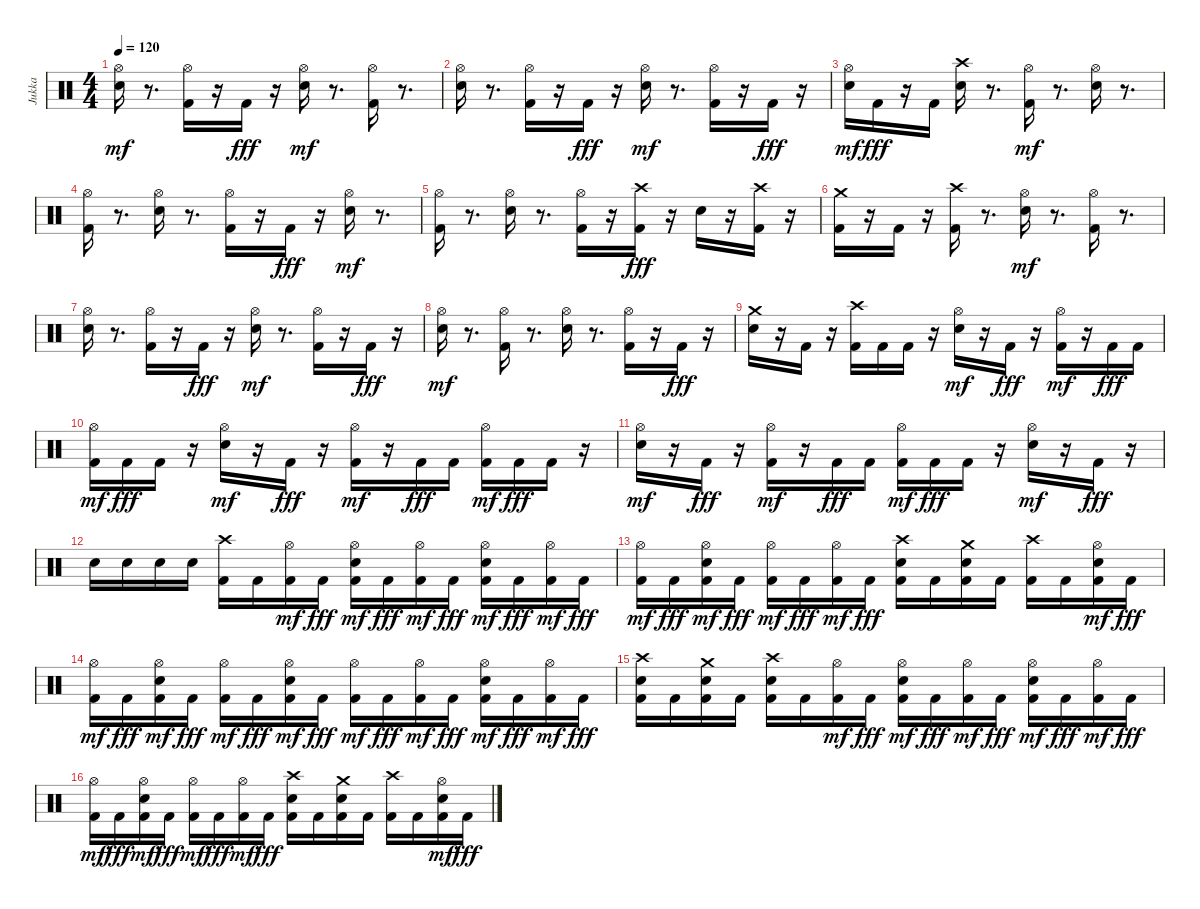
\track ("Jukka" "Jukka") {instrument percussion}
\staff {score}
\articulation defaults
\ts (4 4)
\tempo 120
\clef neutral
\ks c
("Electric Snare (hit)" "Hi-Hat (open)").16{dy mf} r.8{d} ("Kick (hit) 2" "Hi-Hat (open)").16 r.16 "Kick (hit) 2".16{dy fff} r.16 ("Electric Snare (hit)" "Hi-Hat (open)").16{dy mf} r.8{d} ("Kick (hit) 2" "Hi-Hat (open)").16 r.8{d} |
("Electric Snare (hit)" "Hi-Hat (open)").16 r.8{d} ("Kick (hit) 2" "Hi-Hat (open)").16 r.16 "Kick (hit) 2".16{dy fff} r.16 ("Electric Snare (hit)" "Hi-Hat (open)").16{dy mf} r.8{d} ("Kick (hit) 2" "Hi-Hat (open)").16 r.16 "Kick (hit) 2".16{dy fff} r.16 |
("Electric Snare (hit)" "Hi-Hat (open)").16{dy mf} "Kick (hit) 2".16{dy fff} r.16 "Kick (hit) 2".16 ("Electric Snare (hit)" "Crash high (hit)").16 r.8{d} ("Kick (hit) 2" "Hi-Hat (open)").16{dy mf} r.8{d} ("Electric Snare (hit)" "Hi-Hat (open)").16 r.8{d} |
("Kick (hit) 2" "Hi-Hat (open)").16 r.8{d} ("Electric Snare (hit)" "Hi-Hat (open)").16 r.8{d} ("Kick (hit) 2" "Hi-Hat (open)").16 r.16 "Kick (hit) 2".16{dy fff} r.16 ("Electric Snare (hit)" "Hi-Hat (open)").16{dy mf} r.8{d} |
("Kick (hit) 2" "Hi-Hat (open)").16 r.8{d} ("Electric Snare (hit)" "Hi-Hat (open)").16 r.8{d} ("Kick (hit) 2" "Hi-Hat (open)").16 r.16 ("Kick (hit) 2" "Crash high (hit)").16{dy fff} r.16 "Electric Snare (hit)".16 r.16 ("Kick (hit) 2" "Crash high (hit)").16 r.16 |
("Kick (hit) 2" "Crash medium (hit)").16 r.16 "Kick (hit) 2".16 r.16 ("Kick (hit) 2" "Crash high (hit)").16 r.8{d} ("Electric Snare (hit)" "Hi-Hat (open)").16{dy mf} r.8{d} ("Kick (hit) 2" "Hi-Hat (open)").16 r.8{d} |
("Electric Snare (hit)" "Hi-Hat (open)").16 r.8{d} ("Kick (hit) 2" "Hi-Hat (open)").16 r.16 "Kick (hit) 2".16{dy fff} r.16 ("Electric Snare (hit)" "Hi-Hat (open)").16{dy mf} r.8{d} ("Kick (hit) 2" "Hi-Hat (open)").16 r.16 "Kick (hit) 2".16{dy fff} r.16 |
("Electric Snare (hit)" "Hi-Hat (open)").16{dy mf} r.8{d} ("Kick (hit) 2" "Hi-Hat (open)").16 r.8{d} ("Electric Snare (hit)" "Hi-Hat (open)").16 r.8{d} ("Kick (hit) 2" "Hi-Hat (open)").16 r.16 "Kick (hit) 2".16{dy fff} r.16 |
("Electric Snare (hit)" "Crash medium (hit)").16 r.16 "Kick (hit) 2".16 r.16 ("Kick (hit) 2" "Crash high (hit)").16 "Kick (hit) 2".16 "Kick (hit) 2".16 r.16 ("Electric Snare (hit)" "Hi-Hat (open)").16{dy mf} r.16 "Kick (hit) 2".16{dy fff} r.16 ("Kick (hit) 2" "Hi-Hat (open)").16{dy mf} r.16 "Kick (hit) 2".16{dy fff} "Kick (hit) 2".16 |
("Kick (hit) 2" "Hi-Hat (open)").16{dy mf} "Kick (hit) 2".16{dy fff} "Kick (hit) 2".16 r.16 ("Electric Snare (hit)" "Hi-Hat (open)").16{dy mf} r.16 "Kick (hit) 2".16{dy fff} r.16 ("Kick (hit) 2" "Hi-Hat (open)").16{dy mf} r.16 "Kick (hit) 2".16{dy fff} "Kick (hit) 2".16 ("Kick (hit) 2" "Hi-Hat (open)").16{dy mf} "Kick (hit) 2".16{dy fff} "Kick (hit) 2".16 r.16 |
("Electric Snare (hit)" "Hi-Hat (open)").16{dy mf} r.16 "Kick (hit) 2".16{dy fff} r.16 ("Kick (hit) 2" "Hi-Hat (open)").16{dy mf} r.16 "Kick (hit) 2".16{dy fff} "Kick (hit) 2".16 ("Kick (hit) 2" "Hi-Hat (open)").16{dy mf} "Kick (hit) 2".16{dy fff} "Kick (hit) 2".16 r.16 ("Electric Snare (hit)" "Hi-Hat (open)").16{dy mf} r.16 "Kick (hit) 2".16{dy fff} r.16 |
"Electric Snare (hit)".16 "Electric Snare (hit)".16 "Electric Snare (hit)".16 "Electric Snare (hit)".16 ("Kick (hit) 2" "Crash high (hit)").16 "Kick (hit) 2".16 ("Kick (hit) 2" "Hi-Hat (open)").16{dy mf} "Kick (hit) 2".16{dy fff} ("Kick (hit) 2" "Electric Snare (hit)" "Hi-Hat (open)").16{dy mf} "Kick (hit) 2".16{dy fff} ("Kick (hit) 2" "Hi-Hat (open)").16{dy mf} "Kick (hit) 2".16{dy fff} ("Kick (hit) 2" "Electric Snare (hit)" "Hi-Hat (open)").16{dy mf} "Kick (hit) 2".16{dy fff} ("Kick (hit) 2" "Hi-Hat (open)").16{dy mf} "Kick (hit) 2".16{dy fff} |
("Kick (hit) 2" "Hi-Hat (open)").16{dy mf} "Kick (hit) 2".16{dy fff} ("Kick (hit) 2" "Electric Snare (hit)" "Hi-Hat (open)").16{dy mf} "Kick (hit) 2".16{dy fff} ("Kick (hit) 2" "Hi-Hat (open)").16{dy mf} "Kick (hit) 2".16{dy fff} ("Kick (hit) 2" "Hi-Hat (open)").16{dy mf} "Kick (hit) 2".16{dy fff} ("Kick (hit) 2" "Electric Snare (hit)" "Crash high (hit)").16 "Kick (hit) 2".16 ("Kick (hit) 2" "Electric Snare (hit)" "Crash medium (hit)").16 "Kick (hit) 2".16 ("Kick (hit) 2" "Crash high (hit)").16 "Kick (hit) 2".16 ("Kick (hit) 2" "Electric Snare (hit)" "Hi-Hat (open)").16{dy mf} "Kick (hit) 2".16{dy fff} |
("Kick (hit) 2" "Hi-Hat (open)").16{dy mf} "Kick (hit) 2".16{dy fff} ("Kick (hit) 2" "Electric Snare (hit)" "Hi-Hat (open)").16{dy mf} "Kick (hit) 2".16{dy fff} ("Kick (hit) 2" "Hi-Hat (open)").16{dy mf} "Kick (hit) 2".16{dy fff} ("Kick (hit) 2" "Electric Snare (hit)" "Hi-Hat (open)").16{dy mf} "Kick (hit) 2".16{dy fff} ("Kick (hit) 2" "Hi-Hat (open)").16{dy mf} "Kick (hit) 2".16{dy fff} ("Kick (hit) 2" "Hi-Hat (open)").16{dy mf} "Kick (hit) 2".16{dy fff} ("Kick (hit) 2" "Electric Snare (hit)" "Hi-Hat (open)").16{dy mf} "Kick (hit) 2".16{dy fff} ("Kick (hit) 2" "Hi-Hat (open)").16{dy mf} "Kick (hit) 2".16{dy fff} |
("Kick (hit) 2" "Electric Snare (hit)" "Crash high (hit)").16 "Kick (hit) 2".16 ("Kick (hit) 2" "Electric Snare (hit)" "Crash medium (hit)").16 "Kick (hit) 2".16 ("Kick (hit) 2" "Electric Snare (hit)" "Crash high (hit)").16 "Kick (hit) 2".16 ("Kick (hit) 2" "Hi-Hat (open)").16{dy mf} "Kick (hit) 2".16{dy fff} ("Kick (hit) 2" "Electric Snare (hit)" "Hi-Hat (open)").16{dy mf} "Kick (hit) 2".16{dy fff} ("Kick (hit) 2" "Hi-Hat (open)").16{dy mf} "Kick (hit) 2".16{dy fff} ("Kick (hit) 2" "Electric Snare (hit)" "Hi-Hat (open)").16{dy mf} "Kick (hit) 2".16{dy fff} ("Kick (hit) 2" "Hi-Hat (open)").16{dy mf} "Kick (hit) 2".16{dy fff} |
("Kick (hit) 2" "Hi-Hat (open)").16{dy mf} "Kick (hit) 2".16{dy fff} ("Kick (hit) 2" "Electric Snare (hit)" "Hi-Hat (open)").16{dy mf} "Kick (hit) 2".16{dy fff} ("Kick (hit) 2" "Hi-Hat (open)").16{dy mf} "Kick (hit) 2".16{dy fff} ("Kick (hit) 2" "Hi-Hat (open)").16{dy mf} "Kick (hit) 2".16{dy fff} ("Kick (hit) 2" "Electric Snare (hit)" "Crash high (hit)").16 "Kick (hit) 2".16 ("Kick (hit) 2" "Electric Snare (hit)" "Crash medium (hit)").16 "Kick (hit) 2".16 ("Kick (hit) 2" "Crash high (hit)").16 "Kick (hit) 2".16 ("Kick (hit) 2" "Electric Snare (hit)" "Hi-Hat (open)").16{dy mf} "Kick (hit) 2".16{dy fff}
